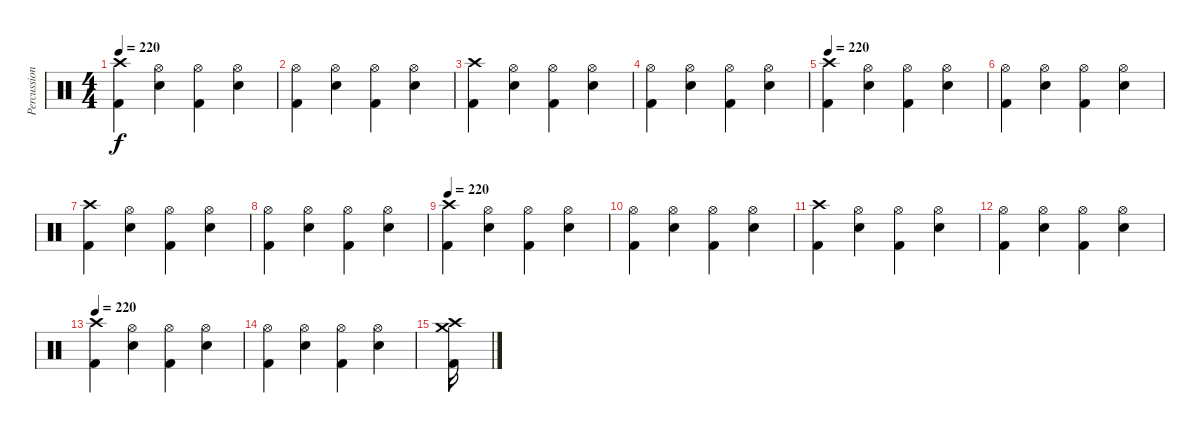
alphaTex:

\track ("Percussion" "Percussion") {instrument percussion}
\staff {score}
\articulation defaults
\ts (4 4)
\tempo 220
\clef neutral
\ks c
("Kick (hit) 2" "Crash high (hit)").4{dy f} ("Hi-Hat (open)" "Electric Snare (hit)").4 ("Hi-Hat (open)" "Kick (hit) 2").4 ("Hi-Hat (open)" "Electric Snare (hit)").4 |
("Kick (hit) 2" "Hi-Hat (open)").4 ("Hi-Hat (open)" "Electric Snare (hit)").4 ("Hi-Hat (open)" "Kick (hit) 2").4 ("Hi-Hat (open)" "Electric Snare (hit)").4 |
("Kick (hit) 2" "Crash high (hit)").4 ("Hi-Hat (open)" "Electric Snare (hit)").4 ("Hi-Hat (open)" "Kick (hit) 2").4 ("Hi-Hat (open)" "Electric Snare (hit)").4 |
("Kick (hit) 2" "Hi-Hat (open)").4 ("Hi-Hat (open)" "Electric Snare (hit)").4 ("Hi-Hat (open)" "Kick (hit) 2").4 ("Hi-Hat (open)" "Electric Snare (hit)").4 |
\tempo 220
("Kick (hit) 2" "Crash high (hit)").4 ("Hi-Hat (open)" "Electric Snare (hit)").4 ("Hi-Hat (open)" "Kick (hit) 2").4 ("Hi-Hat (open)" "Electric Snare (hit)").4 |
("Kick (hit) 2" "Hi-Hat (open)").4 ("Hi-Hat (open)" "Electric Snare (hit)").4 ("Hi-Hat (open)" "Kick (hit) 2").4 ("Hi-Hat (open)" "Electric Snare (hit)").4 |
("Kick (hit) 2" "Crash high (hit)").4 ("Hi-Hat (open)" "Electric Snare (hit)").4 ("Hi-Hat (open)" "Kick (hit) 2").4 ("Hi-Hat (open)" "Electric Snare (hit)").4 |
("Kick (hit) 2" "Hi-Hat (open)").4 ("Hi-Hat (open)" "Electric Snare (hit)").4 ("Hi-Hat (open)" "Kick (hit) 2").4 ("Hi-Hat (open)" "Electric Snare (hit)").4 |
\tempo 220
("Kick (hit) 2" "Crash high (hit)").4 ("Hi-Hat (open)" "Electric Snare (hit)").4 ("Hi-Hat (open)" "Kick (hit) 2").4 ("Hi-Hat (open)" "Electric Snare (hit)").4 |
("Kick (hit) 2" "Hi-Hat (open)").4 ("Hi-Hat (open)" "Electric Snare (hit)").4 ("Hi-Hat (open)" "Kick (hit) 2").4 ("Hi-Hat (open)" "Electric Snare (hit)").4 |
("Kick (hit) 2" "Crash high (hit)").4 ("Hi-Hat (open)" "Electric Snare (hit)").4 ("Hi-Hat (open)" "Kick (hit) 2").4 ("Hi-Hat (open)" "Electric Snare (hit)").4 |
("Kick (hit) 2" "Hi-Hat (open)").4 ("Hi-Hat (open)" "Electric Snare (hit)").4 ("Hi-Hat (open)" "Kick (hit) 2").4 ("Hi-Hat (open)" "Electric Snare (hit)").4 |
\tempo 220
("Kick (hit) 2" "Crash high (hit)").4 ("Hi-Hat (open)" "Electric Snare (hit)").4 ("Hi-Hat (open)" "Kick (hit) 2").4 ("Hi-Hat (open)" "Electric Snare (hit)").4 |
("Kick (hit) 2" "Hi-Hat (open)").4 ("Hi-Hat (open)" "Electric Snare (hit)").4 ("Hi-Hat (open)" "Kick (hit) 2").4 ("Hi-Hat (open)" "Electric Snare (hit)").4 |
("Crash medium (hit)" "Crash high (hit)" "Kick (hit) 2").16
